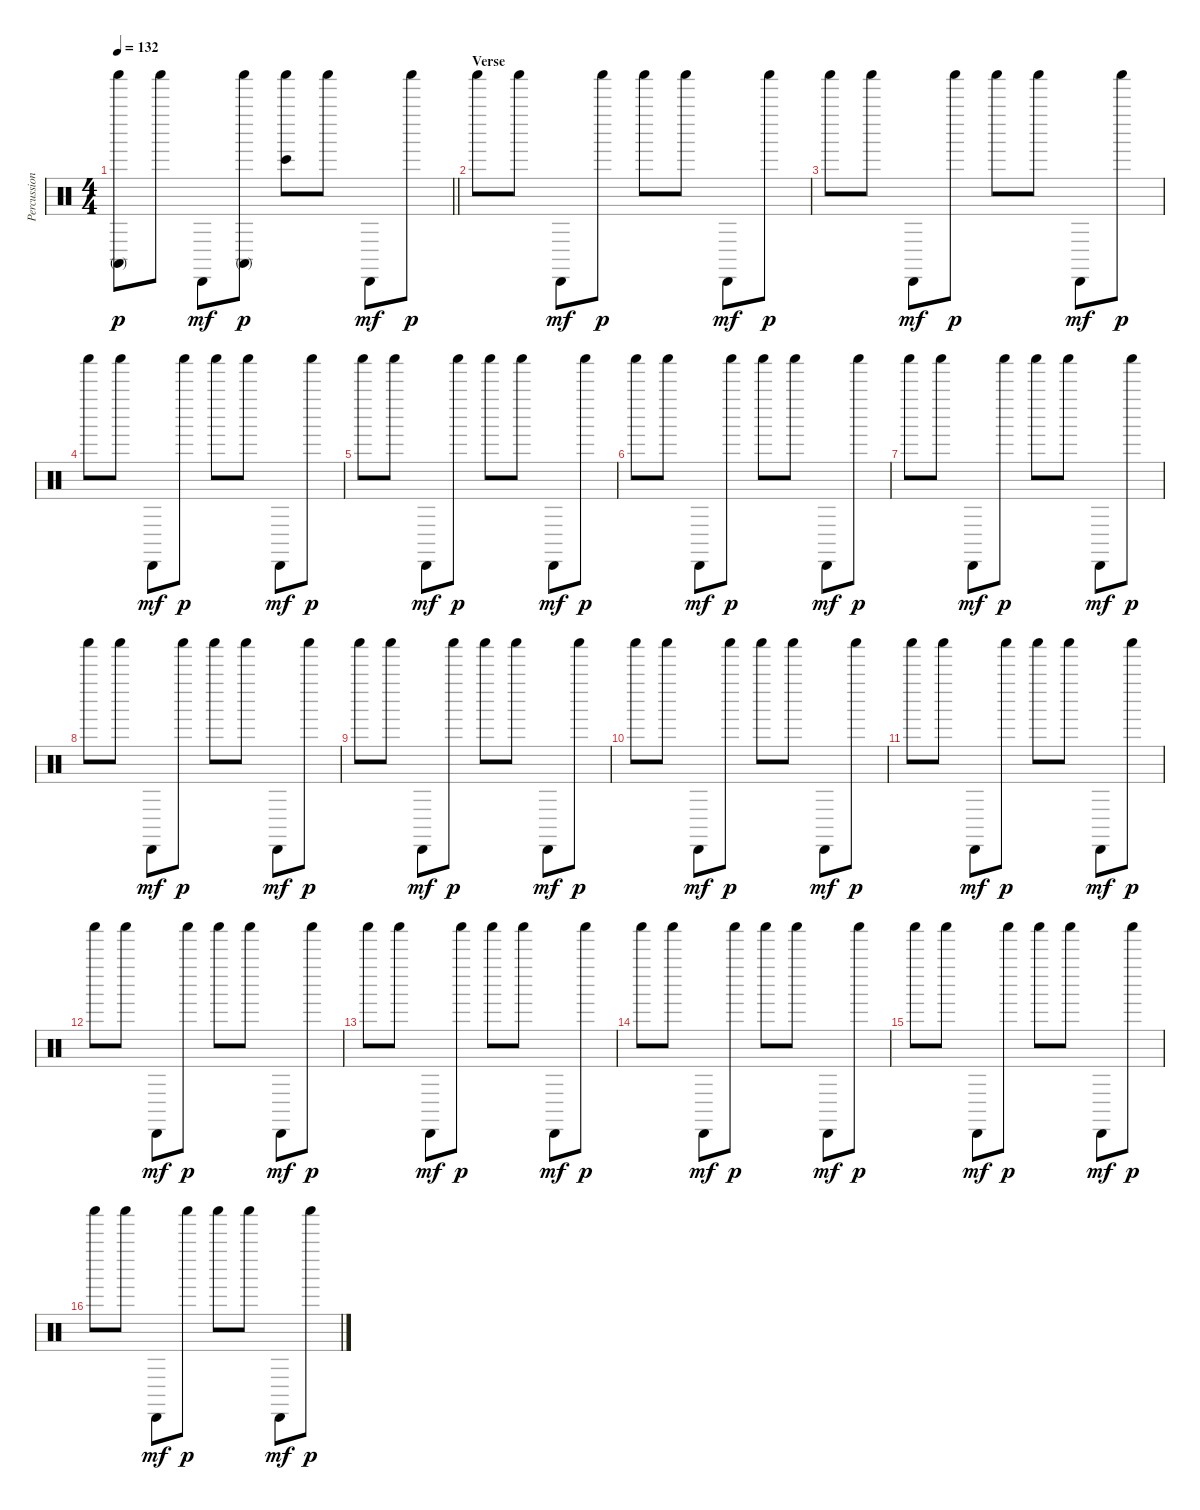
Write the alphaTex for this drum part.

\track ("Percussions" "Percussion") {instrument percussion}
\staff {score}
\articulation defaults
\ts (4 4)
\tempo 132
\clef neutral
\barLineRight lightlight
\ks c
("Shaker (hit)" "Conga high (mute)").8{dy p} "Shaker (hit)".8 "Cabasa (hit)".8{dy mf} ("Shaker (hit)" "Conga high (mute)").8{dy p} ("Shaker (hit)" "Bongo High (hit)").8 "Shaker (hit)".8 "Cabasa (hit)".8{dy mf} "Shaker (hit)".8{dy p} |
\section ("" "Verse")
"Shaker (hit)".8 "Shaker (hit)".8 "Cabasa (hit)".8{dy mf} "Shaker (hit)".8{dy p} "Shaker (hit)".8 "Shaker (hit)".8 "Cabasa (hit)".8{dy mf} "Shaker (hit)".8{dy p} |
"Shaker (hit)".8 "Shaker (hit)".8 "Cabasa (hit)".8{dy mf} "Shaker (hit)".8{dy p} "Shaker (hit)".8 "Shaker (hit)".8 "Cabasa (hit)".8{dy mf} "Shaker (hit)".8{dy p} |
"Shaker (hit)".8 "Shaker (hit)".8 "Cabasa (hit)".8{dy mf} "Shaker (hit)".8{dy p} "Shaker (hit)".8 "Shaker (hit)".8 "Cabasa (hit)".8{dy mf} "Shaker (hit)".8{dy p} |
"Shaker (hit)".8 "Shaker (hit)".8 "Cabasa (hit)".8{dy mf} "Shaker (hit)".8{dy p} "Shaker (hit)".8 "Shaker (hit)".8 "Cabasa (hit)".8{dy mf} "Shaker (hit)".8{dy p} |
"Shaker (hit)".8 "Shaker (hit)".8 "Cabasa (hit)".8{dy mf} "Shaker (hit)".8{dy p} "Shaker (hit)".8 "Shaker (hit)".8 "Cabasa (hit)".8{dy mf} "Shaker (hit)".8{dy p} |
"Shaker (hit)".8 "Shaker (hit)".8 "Cabasa (hit)".8{dy mf} "Shaker (hit)".8{dy p} "Shaker (hit)".8 "Shaker (hit)".8 "Cabasa (hit)".8{dy mf} "Shaker (hit)".8{dy p} |
"Shaker (hit)".8 "Shaker (hit)".8 "Cabasa (hit)".8{dy mf} "Shaker (hit)".8{dy p} "Shaker (hit)".8 "Shaker (hit)".8 "Cabasa (hit)".8{dy mf} "Shaker (hit)".8{dy p} |
"Shaker (hit)".8 "Shaker (hit)".8 "Cabasa (hit)".8{dy mf} "Shaker (hit)".8{dy p} "Shaker (hit)".8 "Shaker (hit)".8 "Cabasa (hit)".8{dy mf} "Shaker (hit)".8{dy p} |
"Shaker (hit)".8 "Shaker (hit)".8 "Cabasa (hit)".8{dy mf} "Shaker (hit)".8{dy p} "Shaker (hit)".8 "Shaker (hit)".8 "Cabasa (hit)".8{dy mf} "Shaker (hit)".8{dy p} |
"Shaker (hit)".8 "Shaker (hit)".8 "Cabasa (hit)".8{dy mf} "Shaker (hit)".8{dy p} "Shaker (hit)".8 "Shaker (hit)".8 "Cabasa (hit)".8{dy mf} "Shaker (hit)".8{dy p} |
"Shaker (hit)".8 "Shaker (hit)".8 "Cabasa (hit)".8{dy mf} "Shaker (hit)".8{dy p} "Shaker (hit)".8 "Shaker (hit)".8 "Cabasa (hit)".8{dy mf} "Shaker (hit)".8{dy p} |
"Shaker (hit)".8 "Shaker (hit)".8 "Cabasa (hit)".8{dy mf} "Shaker (hit)".8{dy p} "Shaker (hit)".8 "Shaker (hit)".8 "Cabasa (hit)".8{dy mf} "Shaker (hit)".8{dy p} |
"Shaker (hit)".8 "Shaker (hit)".8 "Cabasa (hit)".8{dy mf} "Shaker (hit)".8{dy p} "Shaker (hit)".8 "Shaker (hit)".8 "Cabasa (hit)".8{dy mf} "Shaker (hit)".8{dy p} |
"Shaker (hit)".8 "Shaker (hit)".8 "Cabasa (hit)".8{dy mf} "Shaker (hit)".8{dy p} "Shaker (hit)".8 "Shaker (hit)".8 "Cabasa (hit)".8{dy mf} "Shaker (hit)".8{dy p} |
"Shaker (hit)".8 "Shaker (hit)".8 "Cabasa (hit)".8{dy mf} "Shaker (hit)".8{dy p} "Shaker (hit)".8 "Shaker (hit)".8 "Cabasa (hit)".8{dy mf} "Shaker (hit)".8{dy p}
